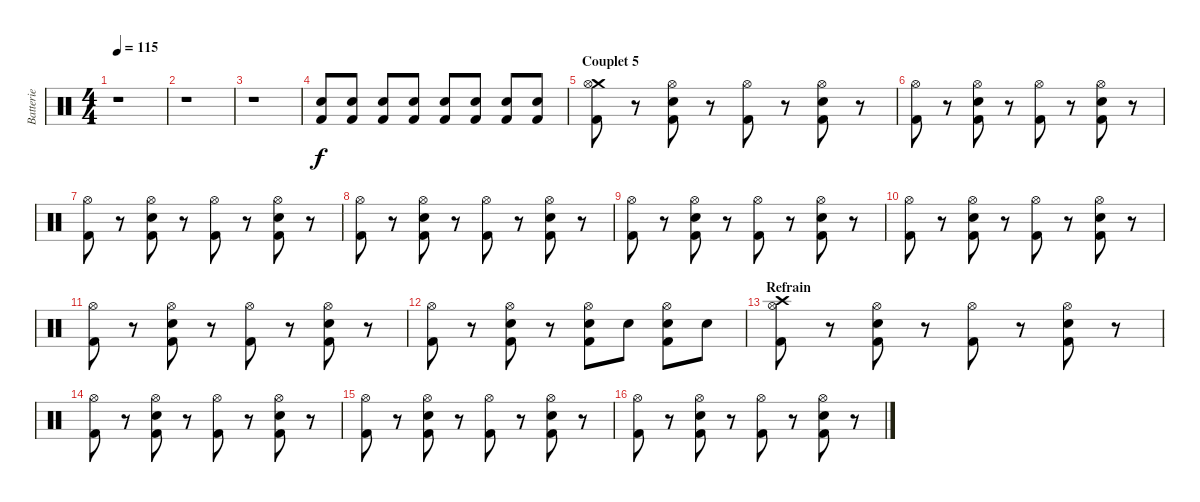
\track ("Batterie" "Batterie") {instrument percussion}
\staff {score}
\articulation defaults
\ts (4 4)
\tempo 115
\clef neutral
\ks c
r.1{dy f} |
r.1 |
r.1 |
("Electric Snare (hit)" "Kick (hit) 2").8 ("Electric Snare (hit)" "Kick (hit) 2").8 ("Electric Snare (hit)" "Kick (hit) 2").8 ("Electric Snare (hit)" "Kick (hit) 2").8 ("Electric Snare (hit)" "Kick (hit) 2").8 ("Electric Snare (hit)" "Kick (hit) 2").8 ("Electric Snare (hit)" "Kick (hit) 2").8 ("Electric Snare (hit)" "Kick (hit) 2").8 |
\section ("" "Couplet 5")
("Crash medium (hit)" "Hi-Hat (open)" "Kick (hit) 2").8 r.8 ("Electric Snare (hit)" "Hi-Hat (open)" "Kick (hit) 2").8 r.8 ("Hi-Hat (open)" "Kick (hit) 2").8 r.8 ("Electric Snare (hit)" "Hi-Hat (open)" "Kick (hit) 2").8 r.8 |
("Hi-Hat (open)" "Kick (hit) 2").8 r.8 ("Electric Snare (hit)" "Hi-Hat (open)" "Kick (hit) 2").8 r.8 ("Hi-Hat (open)" "Kick (hit) 2").8 r.8 ("Electric Snare (hit)" "Hi-Hat (open)" "Kick (hit) 2").8 r.8 |
("Hi-Hat (open)" "Kick (hit) 2").8 r.8 ("Electric Snare (hit)" "Hi-Hat (open)" "Kick (hit) 2").8 r.8 ("Hi-Hat (open)" "Kick (hit) 2").8 r.8 ("Electric Snare (hit)" "Hi-Hat (open)" "Kick (hit) 2").8 r.8 |
("Hi-Hat (open)" "Kick (hit) 2").8 r.8 ("Electric Snare (hit)" "Hi-Hat (open)" "Kick (hit) 2").8 r.8 ("Hi-Hat (open)" "Kick (hit) 2").8 r.8 ("Electric Snare (hit)" "Hi-Hat (open)" "Kick (hit) 2").8 r.8 |
("Hi-Hat (open)" "Kick (hit) 2").8 r.8 ("Electric Snare (hit)" "Hi-Hat (open)" "Kick (hit) 2").8 r.8 ("Hi-Hat (open)" "Kick (hit) 2").8 r.8 ("Electric Snare (hit)" "Hi-Hat (open)" "Kick (hit) 2").8 r.8 |
("Hi-Hat (open)" "Kick (hit) 2").8 r.8 ("Electric Snare (hit)" "Hi-Hat (open)" "Kick (hit) 2").8 r.8 ("Hi-Hat (open)" "Kick (hit) 2").8 r.8 ("Electric Snare (hit)" "Hi-Hat (open)" "Kick (hit) 2").8 r.8 |
("Hi-Hat (open)" "Kick (hit) 2").8 r.8 ("Electric Snare (hit)" "Hi-Hat (open)" "Kick (hit) 2").8 r.8 ("Hi-Hat (open)" "Kick (hit) 2").8 r.8 ("Electric Snare (hit)" "Hi-Hat (open)" "Kick (hit) 2").8 r.8 |
("Hi-Hat (open)" "Kick (hit) 2").8 r.8 ("Electric Snare (hit)" "Hi-Hat (open)" "Kick (hit) 2").8 r.8 ("Electric Snare (hit)" "Hi-Hat (open)" "Kick (hit) 2").8 "Electric Snare (hit)".8 ("Electric Snare (hit)" "Hi-Hat (open)" "Kick (hit) 2").8 "Electric Snare (hit)".8 |
\section ("" "Refrain")
("Crash high (hit)" "Hi-Hat (open)" "Kick (hit) 2").8 r.8 ("Electric Snare (hit)" "Hi-Hat (open)" "Kick (hit) 2").8 r.8 ("Hi-Hat (open)" "Kick (hit) 2").8 r.8 ("Electric Snare (hit)" "Hi-Hat (open)" "Kick (hit) 2").8 r.8 |
("Hi-Hat (open)" "Kick (hit) 2").8 r.8 ("Electric Snare (hit)" "Hi-Hat (open)" "Kick (hit) 2").8 r.8 ("Hi-Hat (open)" "Kick (hit) 2").8 r.8 ("Electric Snare (hit)" "Hi-Hat (open)" "Kick (hit) 2").8 r.8 |
("Hi-Hat (open)" "Kick (hit) 2").8 r.8 ("Electric Snare (hit)" "Hi-Hat (open)" "Kick (hit) 2").8 r.8 ("Hi-Hat (open)" "Kick (hit) 2").8 r.8 ("Electric Snare (hit)" "Hi-Hat (open)" "Kick (hit) 2").8 r.8 |
("Hi-Hat (open)" "Kick (hit) 2").8 r.8 ("Electric Snare (hit)" "Hi-Hat (open)" "Kick (hit) 2").8 r.8 ("Hi-Hat (open)" "Kick (hit) 2").8 r.8 ("Electric Snare (hit)" "Hi-Hat (open)" "Kick (hit) 2").8 r.8
